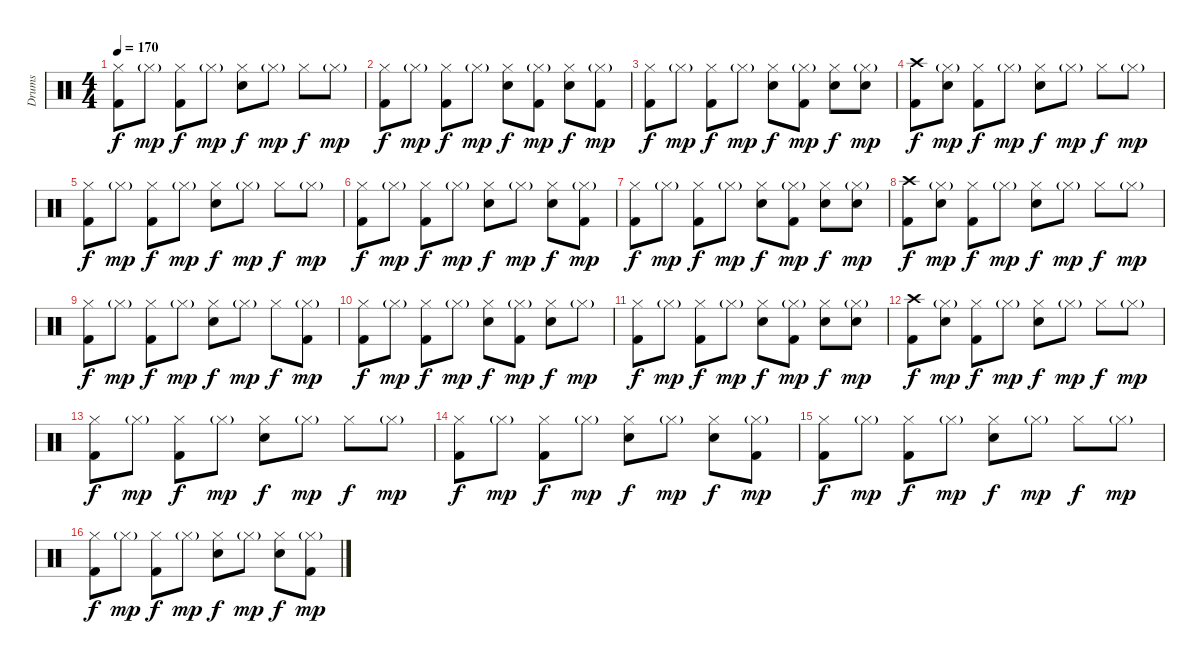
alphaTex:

\track ("Drums" "Drums") {instrument percussion}
\staff {score}
\articulation defaults
\ts (4 4)
\tempo 170
\clef neutral
\ks c
("Hi-Hat (closed)" "Kick (hit) 2").8{dy f} "Hi-Hat (closed)"{g}.8{dy mp} ("Hi-Hat (closed)" "Kick (hit) 2").8{dy f} "Hi-Hat (closed)"{g}.8{dy mp} ("Hi-Hat (closed)" "Snare (hit) 2").8{dy f} "Hi-Hat (closed)"{g}.8{dy mp} "Hi-Hat (closed)".8{dy f} "Hi-Hat (closed)"{g}.8{dy mp} |
("Hi-Hat (closed)" "Kick (hit) 2").8{dy f} "Hi-Hat (closed)"{g}.8{dy mp} ("Hi-Hat (closed)" "Kick (hit) 2").8{dy f} "Hi-Hat (closed)"{g}.8{dy mp} ("Hi-Hat (closed)" "Snare (hit) 2").8{dy f} ("Hi-Hat (closed)"{g} "Kick (hit) 2").8{dy mp} ("Hi-Hat (closed)" "Snare (hit) 2").8{dy f} ("Hi-Hat (closed)"{g} "Kick (hit) 2").8{dy mp} |
("Hi-Hat (closed)" "Kick (hit) 2").8{dy f} "Hi-Hat (closed)"{g}.8{dy mp} ("Hi-Hat (closed)" "Kick (hit) 2").8{dy f} "Hi-Hat (closed)"{g}.8{dy mp} ("Hi-Hat (closed)" "Snare (hit) 2").8{dy f} ("Hi-Hat (closed)"{g} "Kick (hit) 2").8{dy mp} ("Hi-Hat (closed)" "Snare (hit) 2").8{dy f} ("Hi-Hat (closed)"{g} "Snare (hit) 2").8{dy mp} |
("Crash high (hit)" "Kick (hit) 2").8{dy f} ("Hi-Hat (closed)"{g} "Snare (hit) 2").8{dy mp} ("Hi-Hat (closed)" "Kick (hit) 2").8{dy f} "Hi-Hat (closed)"{g}.8{dy mp} ("Hi-Hat (closed)" "Snare (hit) 2").8{dy f} "Hi-Hat (closed)"{g}.8{dy mp} "Hi-Hat (closed)".8{dy f} "Hi-Hat (closed)"{g}.8{dy mp} |
("Hi-Hat (closed)" "Kick (hit) 2").8{dy f} "Hi-Hat (closed)"{g}.8{dy mp} ("Hi-Hat (closed)" "Kick (hit) 2").8{dy f} "Hi-Hat (closed)"{g}.8{dy mp} ("Hi-Hat (closed)" "Snare (hit) 2").8{dy f} "Hi-Hat (closed)"{g}.8{dy mp} "Hi-Hat (closed)".8{dy f} "Hi-Hat (closed)"{g}.8{dy mp} |
("Hi-Hat (closed)" "Kick (hit) 2").8{dy f} "Hi-Hat (closed)"{g}.8{dy mp} ("Hi-Hat (closed)" "Kick (hit) 2").8{dy f} "Hi-Hat (closed)"{g}.8{dy mp} ("Hi-Hat (closed)" "Snare (hit) 2").8{dy f} "Hi-Hat (closed)"{g}.8{dy mp} ("Hi-Hat (closed)" "Snare (hit) 2").8{dy f} ("Hi-Hat (closed)"{g} "Kick (hit) 2").8{dy mp} |
("Hi-Hat (closed)" "Kick (hit) 2").8{dy f} "Hi-Hat (closed)"{g}.8{dy mp} ("Hi-Hat (closed)" "Kick (hit) 2").8{dy f} "Hi-Hat (closed)"{g}.8{dy mp} ("Hi-Hat (closed)" "Snare (hit) 2").8{dy f} ("Hi-Hat (closed)"{g} "Kick (hit) 2").8{dy mp} ("Hi-Hat (closed)" "Snare (hit) 2").8{dy f} ("Hi-Hat (closed)"{g} "Snare (hit) 2").8{dy mp} |
("Crash high (hit)" "Kick (hit) 2").8{dy f} ("Hi-Hat (closed)"{g} "Snare (hit) 2").8{dy mp} ("Hi-Hat (closed)" "Kick (hit) 2").8{dy f} "Hi-Hat (closed)"{g}.8{dy mp} ("Hi-Hat (closed)" "Snare (hit) 2").8{dy f} "Hi-Hat (closed)"{g}.8{dy mp} "Hi-Hat (closed)".8{dy f} "Hi-Hat (closed)"{g}.8{dy mp} |
("Hi-Hat (closed)" "Kick (hit) 2").8{dy f} "Hi-Hat (closed)"{g}.8{dy mp} ("Hi-Hat (closed)" "Kick (hit) 2").8{dy f} "Hi-Hat (closed)"{g}.8{dy mp} ("Hi-Hat (closed)" "Snare (hit) 2").8{dy f} "Hi-Hat (closed)"{g}.8{dy mp} "Hi-Hat (closed)".8{dy f} ("Hi-Hat (closed)"{g} "Kick (hit) 2").8{dy mp} |
("Hi-Hat (closed)" "Kick (hit) 2").8{dy f} "Hi-Hat (closed)"{g}.8{dy mp} ("Hi-Hat (closed)" "Kick (hit) 2").8{dy f} "Hi-Hat (closed)"{g}.8{dy mp} ("Hi-Hat (closed)" "Snare (hit) 2").8{dy f} ("Hi-Hat (closed)"{g} "Kick (hit) 2").8{dy mp} ("Hi-Hat (closed)" "Snare (hit) 2").8{dy f} "Hi-Hat (closed)"{g}.8{dy mp} |
("Hi-Hat (closed)" "Kick (hit) 2").8{dy f} "Hi-Hat (closed)"{g}.8{dy mp} ("Hi-Hat (closed)" "Kick (hit) 2").8{dy f} "Hi-Hat (closed)"{g}.8{dy mp} ("Hi-Hat (closed)" "Snare (hit) 2").8{dy f} ("Hi-Hat (closed)"{g} "Kick (hit) 2").8{dy mp} ("Hi-Hat (closed)" "Snare (hit) 2").8{dy f} ("Hi-Hat (closed)"{g} "Snare (hit) 2").8{dy mp} |
("Crash high (hit)" "Kick (hit) 2").8{dy f} ("Hi-Hat (closed)"{g} "Snare (hit) 2").8{dy mp} ("Hi-Hat (closed)" "Kick (hit) 2").8{dy f} "Hi-Hat (closed)"{g}.8{dy mp} ("Hi-Hat (closed)" "Snare (hit) 2").8{dy f} "Hi-Hat (closed)"{g}.8{dy mp} "Hi-Hat (closed)".8{dy f} "Hi-Hat (closed)"{g}.8{dy mp} |
("Hi-Hat (closed)" "Kick (hit) 2").8{dy f} "Hi-Hat (closed)"{g}.8{dy mp} ("Hi-Hat (closed)" "Kick (hit) 2").8{dy f} "Hi-Hat (closed)"{g}.8{dy mp} ("Hi-Hat (closed)" "Snare (hit) 2").8{dy f} "Hi-Hat (closed)"{g}.8{dy mp} "Hi-Hat (closed)".8{dy f} "Hi-Hat (closed)"{g}.8{dy mp} |
("Hi-Hat (closed)" "Kick (hit) 2").8{dy f} "Hi-Hat (closed)"{g}.8{dy mp} ("Hi-Hat (closed)" "Kick (hit) 2").8{dy f} "Hi-Hat (closed)"{g}.8{dy mp} ("Hi-Hat (closed)" "Snare (hit) 2").8{dy f} "Hi-Hat (closed)"{g}.8{dy mp} ("Hi-Hat (closed)" "Snare (hit) 2").8{dy f} ("Hi-Hat (closed)"{g} "Kick (hit) 2").8{dy mp} |
("Hi-Hat (closed)" "Kick (hit) 2").8{dy f} "Hi-Hat (closed)"{g}.8{dy mp} ("Hi-Hat (closed)" "Kick (hit) 2").8{dy f} "Hi-Hat (closed)"{g}.8{dy mp} ("Hi-Hat (closed)" "Snare (hit) 2").8{dy f} "Hi-Hat (closed)"{g}.8{dy mp} "Hi-Hat (closed)".8{dy f} "Hi-Hat (closed)"{g}.8{dy mp} |
("Hi-Hat (closed)" "Kick (hit) 2").8{dy f} "Hi-Hat (closed)"{g}.8{dy mp} ("Hi-Hat (closed)" "Kick (hit) 2").8{dy f} "Hi-Hat (closed)"{g}.8{dy mp} ("Hi-Hat (closed)" "Snare (hit) 2").8{dy f} "Hi-Hat (closed)"{g}.8{dy mp} ("Hi-Hat (closed)" "Snare (hit) 2").8{dy f} ("Hi-Hat (closed)"{g} "Kick (hit) 2").8{dy mp}
